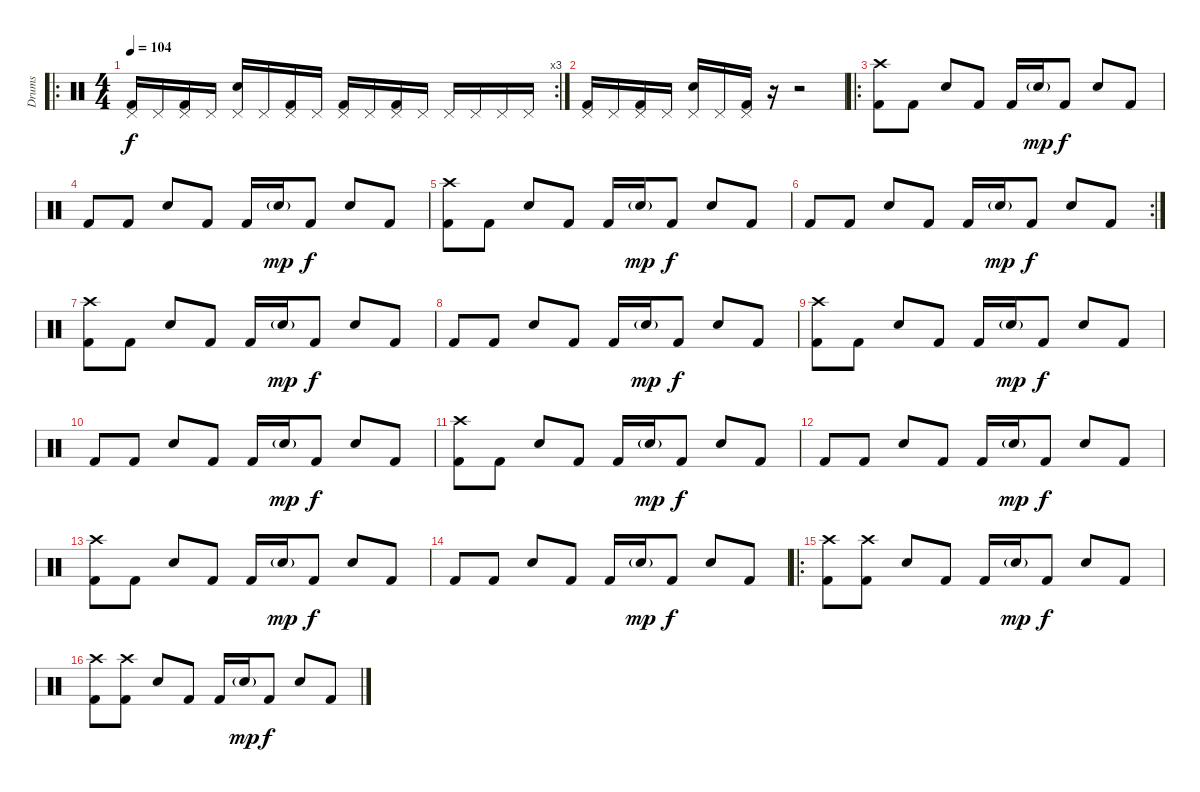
\track ("Drums" "Drums") {instrument percussion}
\staff {score}
\articulation defaults
\ro
\rc 3
\ts (4 4)
\tempo 104
\clef neutral
\ks c
("Pedal Hi-Hat (hit)" "Kick (hit) 2").16{dy f} "Pedal Hi-Hat (hit)".16 ("Pedal Hi-Hat (hit)" "Kick (hit) 2").16 "Pedal Hi-Hat (hit)".16 ("Pedal Hi-Hat (hit)" "Snare (hit) 2").16 "Pedal Hi-Hat (hit)".16 ("Pedal Hi-Hat (hit)" "Kick (hit) 2").16 "Pedal Hi-Hat (hit)".16 ("Pedal Hi-Hat (hit)" "Kick (hit) 2").16 "Pedal Hi-Hat (hit)".16 ("Pedal Hi-Hat (hit)" "Kick (hit) 2").16 "Pedal Hi-Hat (hit)".16 "Pedal Hi-Hat (hit)".16 "Pedal Hi-Hat (hit)".16 "Pedal Hi-Hat (hit)".16 "Pedal Hi-Hat (hit)".16 |
("Pedal Hi-Hat (hit)" "Kick (hit) 2").16 "Pedal Hi-Hat (hit)".16 ("Pedal Hi-Hat (hit)" "Kick (hit) 2").16 "Pedal Hi-Hat (hit)".16 ("Pedal Hi-Hat (hit)" "Snare (hit) 2").16 "Pedal Hi-Hat (hit)".16 ("Pedal Hi-Hat (hit)" "Kick (hit) 2").16 r.16 r.2 |
\ro
("Crash high (hit)" "Kick (hit) 2").8 "Kick (hit) 2".8 "Snare (hit) 2".8 "Kick (hit) 2".8 "Kick (hit) 2".16 "Snare (hit) 2"{g}.16{dy mp} "Kick (hit) 2".8{dy f} "Snare (hit) 2".8 "Kick (hit) 2".8 |
"Kick (hit) 2".8 "Kick (hit) 2".8 "Snare (hit) 2".8 "Kick (hit) 2".8 "Kick (hit) 2".16 "Snare (hit) 2"{g}.16{dy mp} "Kick (hit) 2".8{dy f} "Snare (hit) 2".8 "Kick (hit) 2".8 |
("Crash high (hit)" "Kick (hit) 2").8 "Kick (hit) 2".8 "Snare (hit) 2".8 "Kick (hit) 2".8 "Kick (hit) 2".16 "Snare (hit) 2"{g}.16{dy mp} "Kick (hit) 2".8{dy f} "Snare (hit) 2".8 "Kick (hit) 2".8 |
\rc 2 "Kick (hit) 2".8 "Kick (hit) 2".8 "Snare (hit) 2".8 "Kick (hit) 2".8 "Kick (hit) 2".16 "Snare (hit) 2"{g}.16{dy mp} "Kick (hit) 2".8{dy f} "Snare (hit) 2".8 "Kick (hit) 2".8
|
("Crash high (hit)" "Kick (hit) 2").8 "Kick (hit) 2".8 "Snare (hit) 2".8 "Kick (hit) 2".8 "Kick (hit) 2".16 "Snare (hit) 2"{g}.16{dy mp} "Kick (hit) 2".8{dy f} "Snare (hit) 2".8 "Kick (hit) 2".8 |
"Kick (hit) 2".8 "Kick (hit) 2".8 "Snare (hit) 2".8 "Kick (hit) 2".8 "Kick (hit) 2".16 "Snare (hit) 2"{g}.16{dy mp} "Kick (hit) 2".8{dy f} "Snare (hit) 2".8 "Kick (hit) 2".8 |
("Crash high (hit)" "Kick (hit) 2").8 "Kick (hit) 2".8 "Snare (hit) 2".8 "Kick (hit) 2".8 "Kick (hit) 2".16 "Snare (hit) 2"{g}.16{dy mp} "Kick (hit) 2".8{dy f} "Snare (hit) 2".8 "Kick (hit) 2".8 |
"Kick (hit) 2".8 "Kick (hit) 2".8 "Snare (hit) 2".8 "Kick (hit) 2".8 "Kick (hit) 2".16 "Snare (hit) 2"{g}.16{dy mp} "Kick (hit) 2".8{dy f} "Snare (hit) 2".8 "Kick (hit) 2".8 |
("Crash high (hit)" "Kick (hit) 2").8 "Kick (hit) 2".8 "Snare (hit) 2".8 "Kick (hit) 2".8 "Kick (hit) 2".16 "Snare (hit) 2"{g}.16{dy mp} "Kick (hit) 2".8{dy f} "Snare (hit) 2".8 "Kick (hit) 2".8 |
"Kick (hit) 2".8 "Kick (hit) 2".8 "Snare (hit) 2".8 "Kick (hit) 2".8 "Kick (hit) 2".16 "Snare (hit) 2"{g}.16{dy mp} "Kick (hit) 2".8{dy f} "Snare (hit) 2".8 "Kick (hit) 2".8 |
("Crash high (hit)" "Kick (hit) 2").8 "Kick (hit) 2".8 "Snare (hit) 2".8 "Kick (hit) 2".8 "Kick (hit) 2".16 "Snare (hit) 2"{g}.16{dy mp} "Kick (hit) 2".8{dy f} "Snare (hit) 2".8 "Kick (hit) 2".8 |
"Kick (hit) 2".8 "Kick (hit) 2".8 "Snare (hit) 2".8 "Kick (hit) 2".8 "Kick (hit) 2".16 "Snare (hit) 2"{g}.16{dy mp} "Kick (hit) 2".8{dy f} "Snare (hit) 2".8 "Kick (hit) 2".8 |
\ro
("Crash high (hit)" "Kick (hit) 2").8 ("Crash high (hit)" "Kick (hit) 2").8 "Snare (hit) 2".8 "Kick (hit) 2".8 "Kick (hit) 2".16 "Snare (hit) 2"{g}.16{dy mp} "Kick (hit) 2".8{dy f} "Snare (hit) 2".8 "Kick (hit) 2".8 |
("Crash high (hit)" "Kick (hit) 2").8 ("Crash high (hit)" "Kick (hit) 2").8 "Snare (hit) 2".8 "Kick (hit) 2".8 "Kick (hit) 2".16 "Snare (hit) 2"{g}.16{dy mp} "Kick (hit) 2".8{dy f} "Snare (hit) 2".8 "Kick (hit) 2".8
